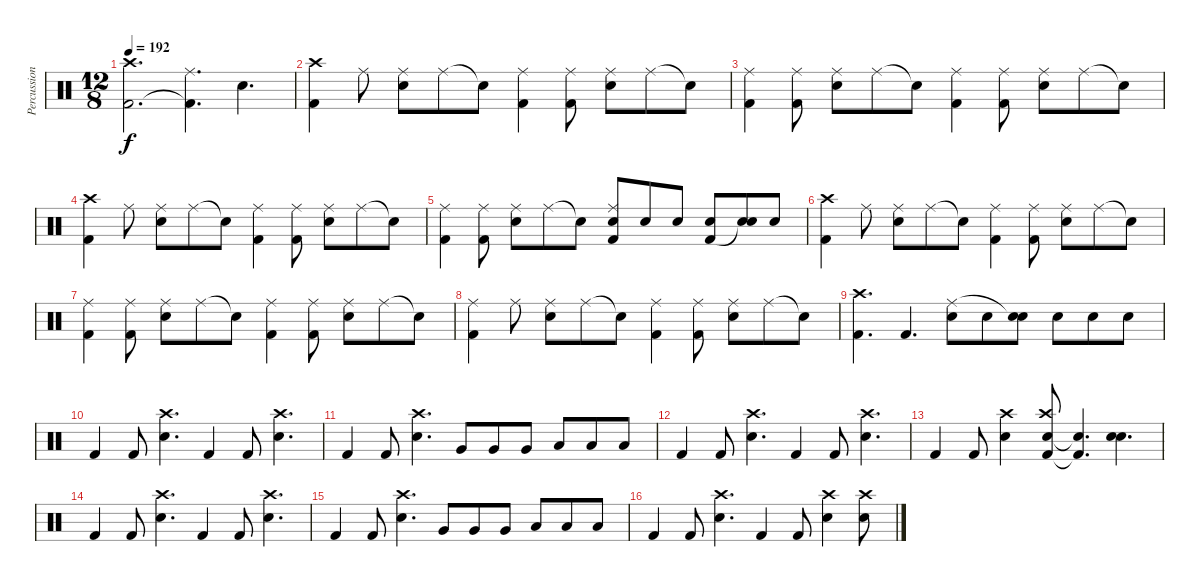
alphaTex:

\track ("Percussion" "Percussion") {instrument percussion}
\staff {score}
\articulation defaults
\ts (12 8)
\tempo 192
\clef neutral
\ks c
("Kick (hit) 2" "Crash high (hit)").2{d dy f} ("Kick (hit) 2"{t} "Ride (middle)").4{d} "Snare (hit) 2".4{d} |
("Kick (hit) 2" "Crash high (hit)").4 "Ride (middle)".8 ("Snare (hit) 2" "Ride (middle)").8 "Ride (middle)".8 "Snare (hit)"{t}.8 ("Kick (hit) 2" "Ride (middle)").4 ("Kick (hit) 2" "Ride (middle)").8 ("Snare (hit) 2" "Ride (middle)").8 "Ride (middle)".8 "Snare (hit)"{t}.8 |
("Kick (hit) 2" "Ride (middle)").4 ("Kick (hit) 2" "Ride (middle)").8 ("Snare (hit) 2" "Ride (middle)").8 "Ride (middle)".8 "Snare (hit)"{t}.8 ("Kick (hit) 2" "Ride (middle)").4 ("Kick (hit) 2" "Ride (middle)").8 ("Snare (hit) 2" "Ride (middle)").8 "Ride (middle)".8 "Snare (hit)"{t}.8 |
("Kick (hit) 2" "Crash high (hit)").4 "Ride (middle)".8 ("Snare (hit) 2" "Ride (middle)").8 "Ride (middle)".8 "Snare (hit)"{t}.8 ("Kick (hit) 2" "Ride (middle)").4 ("Kick (hit) 2" "Ride (middle)").8 ("Snare (hit) 2" "Ride (middle)").8 "Ride (middle)".8 "Snare (hit)"{t}.8 |
("Kick (hit) 2" "Ride (middle)").4 ("Kick (hit) 2" "Ride (middle)").8 ("Snare (hit) 2" "Ride (middle)").8 "Ride (middle)".8 "Snare (hit)"{t}.8 ("Snare (hit) 2" "Kick (hit) 2" "Ride (middle)").8 "Snare (hit) 2".8 "Snare (hit) 2".8 ("Snare (hit) 2" "Kick (hit) 2").8 ("Snare (hit) 2" "Snare (hit)"{t}).8 "Snare (hit) 2".8 |
("Kick (hit) 2" "Crash high (hit)").4 "Ride (middle)".8 ("Snare (hit) 2" "Ride (middle)").8 "Ride (middle)".8 "Snare (hit)"{t}.8 ("Kick (hit) 2" "Ride (middle)").4 ("Kick (hit) 2" "Ride (middle)").8 ("Snare (hit) 2" "Ride (middle)").8 "Ride (middle)".8 "Snare (hit)"{t}.8 |
("Kick (hit) 2" "Ride (middle)").4 ("Kick (hit) 2" "Ride (middle)").8 ("Snare (hit) 2" "Ride (middle)").8 "Ride (middle)".8 "Snare (hit)"{t}.8 ("Kick (hit) 2" "Ride (middle)").4 ("Kick (hit) 2" "Ride (middle)").8 ("Snare (hit) 2" "Ride (middle)").8 "Ride (middle)".8 "Snare (hit)"{t}.8 |
("Kick (hit) 2" "Ride (middle)").4 "Ride (middle)".8 ("Snare (hit) 2" "Ride (middle)").8 "Ride (middle)".8 "Snare (hit)"{t}.8 ("Kick (hit) 2" "Ride (middle)").4 ("Kick (hit) 2" "Ride (middle)").8 ("Snare (hit) 2" "Ride (middle)").8 "Ride (middle)".8 "Snare (hit)"{t}.8 |
("Kick (hit) 2" "Crash high (hit)").4{d} "Kick (hit) 2".4{d} ("Snare (hit) 2" "Ride (middle)").8 "Snare (hit) 2".8 ("Snare (hit) 2" "Snare (hit)"{t}).8 "Snare (hit) 2".8 "Snare (hit) 2".8 "Snare (hit) 2".8 |
"Kick (hit) 2".4 "Kick (hit) 2".8 ("Snare (hit) 2" "Crash high (hit)").4{d} "Kick (hit) 2".4 "Kick (hit) 2".8 ("Snare (hit) 2" "Crash high (hit)").4{d} |
"Kick (hit) 2".4 "Kick (hit) 2".8 ("Snare (hit) 2" "Crash high (hit)").4{d} "Very Low Tom (hit)".8 "Very Low Tom (hit)".8 "Very Low Tom (hit)".8 "Low Floor Tom (hit)".8 "Low Floor Tom (hit)".8 "Low Tom (hit)".8 |
"Kick (hit) 2".4 "Kick (hit) 2".8 ("Snare (hit) 2" "Crash high (hit)").4{d} "Kick (hit) 2".4 "Kick (hit) 2".8 ("Snare (hit) 2" "Crash high (hit)").4{d} |
"Kick (hit) 2".4 "Kick (hit) 2".8 ("Snare (hit) 2" "Crash high (hit)").4 ("Snare (hit) 2" "Kick (hit) 2" "Crash high (hit)").8 ("Snare (hit)"{t} "Kick (hit) 2"{t}).4{d} ("Snare (hit) 2" "Snare (hit) 2").4{d} |
"Kick (hit) 2".4 "Kick (hit) 2".8 ("Snare (hit) 2" "Crash high (hit)").4{d} "Kick (hit) 2".4 "Kick (hit) 2".8 ("Snare (hit) 2" "Crash high (hit)").4{d} |
"Kick (hit) 2".4 "Kick (hit) 2".8 ("Snare (hit) 2" "Crash high (hit)").4{d} "Very Low Tom (hit)".8 "Very Low Tom (hit)".8 "Very Low Tom (hit)".8 "Low Floor Tom (hit)".8 "Low Floor Tom (hit)".8 "Low Tom (hit)".8 |
"Kick (hit) 2".4 "Kick (hit) 2".8 ("Snare (hit) 2" "Crash high (hit)").4{d} "Kick (hit) 2".4 "Kick (hit) 2".8 ("Snare (hit) 2" "Crash high (hit)").4 ("Snare (hit) 2" "Crash high (hit)").8
